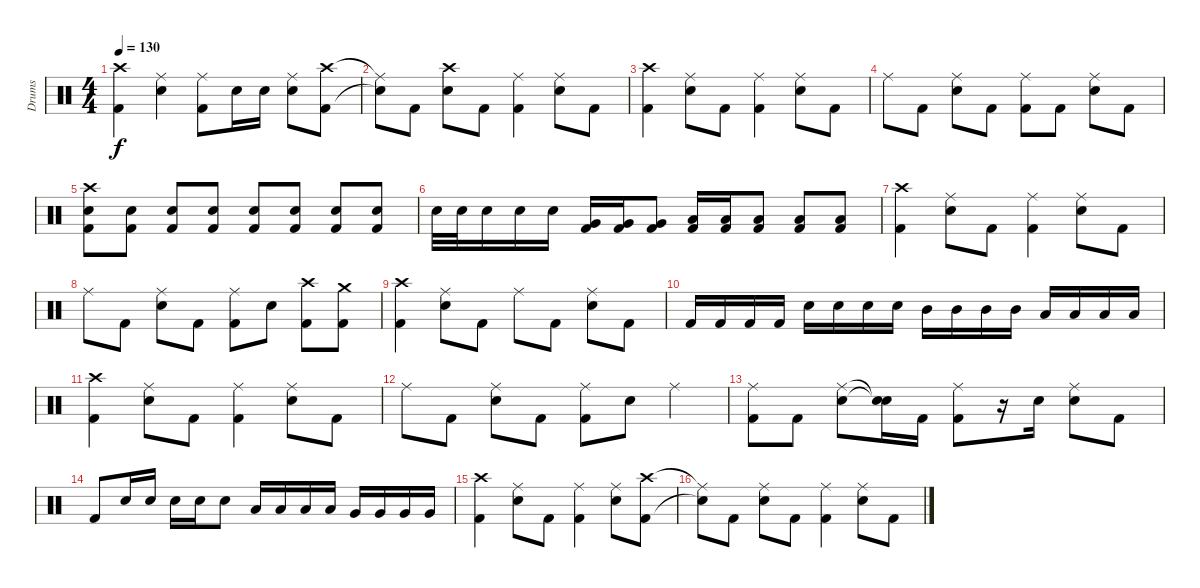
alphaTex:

\track ("Drums" "Drums") {instrument percussion}
\staff {score}
\articulation defaults
\ts (4 4)
\tempo 130
\clef neutral
\ks c
("Crash high (hit)" "Kick (hit) 2").4{dy f} ("Ride (middle)" "Electric Snare (hit)").4 ("Ride (middle)" "Kick (hit) 2").8 "Electric Snare (hit)".16 "Electric Snare (hit)".16 ("Ride (middle)" "Electric Snare (hit)").8 ("Crash high (hit)" "Kick (hit) 2").8 |
("Ride (middle)"{t} "Snare (hit)"{t}).8 "Kick (hit) 2".8 ("Crash high (hit)" "Electric Snare (hit)").8 "Kick (hit) 2".8 ("Ride (middle)" "Kick (hit) 2").4 ("Ride (middle)" "Electric Snare (hit)").8 "Kick (hit) 2".8 |
("Crash high (hit)" "Kick (hit) 2").4 ("Ride (middle)" "Electric Snare (hit)").8 "Kick (hit) 2".8 ("Ride (middle)" "Kick (hit) 2").4 ("Ride (middle)" "Electric Snare (hit)").8 "Kick (hit) 2".8 |
"Ride (middle)".8 "Kick (hit) 2".8 ("Ride (middle)" "Electric Snare (hit)").8 "Kick (hit) 2".8 ("Ride (middle)" "Kick (hit) 2").8 "Kick (hit) 2".8 ("Ride (middle)" "Electric Snare (hit)").8 "Kick (hit) 2".8 |
("Crash high (hit)" "Electric Snare (hit)" "Kick (hit) 2").8 ("Electric Snare (hit)" "Kick (hit) 2").8 ("Electric Snare (hit)" "Kick (hit) 2").8 ("Electric Snare (hit)" "Kick (hit) 2").8 ("Electric Snare (hit)" "Kick (hit) 2").8 ("Electric Snare (hit)" "Kick (hit) 2").8 ("Electric Snare (hit)" "Kick (hit) 2").8 ("Electric Snare (hit)" "Kick (hit) 2").8 |
"Electric Snare (hit)".32 "Electric Snare (hit)".32 "Electric Snare (hit)".16 "Electric Snare (hit)".16 "Electric Snare (hit)".16 ("Very Low Tom (hit)" "Kick (hit) 2").16 ("Very Low Tom (hit)" "Kick (hit) 2").16 ("Very Low Tom (hit)" "Kick (hit) 2").8 ("Low Floor Tom (hit)" "Kick (hit) 2").16 ("Low Floor Tom (hit)" "Kick (hit) 2").16 ("Low Floor Tom (hit)" "Kick (hit) 2").8 ("Low Floor Tom (hit)" "Kick (hit) 2").8 ("Low Floor Tom (hit)" "Kick (hit) 2").8 |
("Crash high (hit)" "Kick (hit) 2").4 ("Ride (middle)" "Electric Snare (hit)").8 "Kick (hit) 2".8 ("Ride (middle)" "Kick (hit) 2").4 ("Ride (middle)" "Electric Snare (hit)").8 "Kick (hit) 2".8 |
"Ride (middle)".8 "Kick (hit) 2".8 ("Ride (middle)" "Electric Snare (hit)").8 "Kick (hit) 2".8 ("Ride (middle)" "Kick (hit) 2").8 "Electric Snare (hit)".8 ("Crash high (hit)" "Kick (hit) 2").8 ("Crash medium (hit)" "Kick (hit) 2").8 |
("Crash high (hit)" "Kick (hit) 2").4 ("Ride (middle)" "Electric Snare (hit)").8 "Kick (hit) 2".8 "Ride (middle)".8 "Kick (hit) 2".8 ("Ride (middle)" "Electric Snare (hit)").8 "Kick (hit) 2".8 |
"Kick (hit) 2".16 "Kick (hit) 2".16 "Kick (hit) 2".16 "Kick (hit) 2".16 "Electric Snare (hit)".16 "Electric Snare (hit)".16 "Electric Snare (hit)".16 "Electric Snare (hit)".16 "Mid Tom (hit)".16 "Mid Tom (hit)".16 "Mid Tom (hit)".16 "Mid Tom (hit)".16 "Low Tom (hit)".16 "Low Tom (hit)".16 "Low Tom (hit)".16 "Low Tom (hit)".16 |
("Crash high (hit)" "Kick (hit) 2").4 ("Ride (middle)" "Electric Snare (hit)").8 "Kick (hit) 2".8 ("Ride (middle)" "Kick (hit) 2").4 ("Ride (middle)" "Electric Snare (hit)").8 "Kick (hit) 2".8 |
"Ride (middle)".8 "Kick (hit) 2".8 ("Ride (middle)" "Electric Snare (hit)").8 "Kick (hit) 2".8 ("Ride (middle)" "Kick (hit) 2").8 "Electric Snare (hit)".8 "Ride (middle)".4 |
("Ride (middle)" "Kick (hit) 2").8 "Kick (hit) 2".8 ("Ride (middle)" "Electric Snare (hit)").8 ("Snare (hit)"{t} "Snare (hit)"{t}).16 "Kick (hit) 2".16 ("Ride (middle)" "Kick (hit) 2").8 r.16 "Electric Snare (hit)".16 ("Ride (middle)" "Electric Snare (hit)").8 "Kick (hit) 2".8 |
"Kick (hit) 2".8 "Electric Snare (hit)".16 "Electric Snare (hit)".16 "Electric Snare (hit)".16 "Electric Snare (hit)".16 "Electric Snare (hit)".8 "Low Tom (hit)".16 "Low Tom (hit)".16 "Low Tom (hit)".16 "Low Tom (hit)".16 "Very Low Tom (hit)".16 "Very Low Tom (hit)".16 "Very Low Tom (hit)".16 "Very Low Tom (hit)".16 |
("Crash high (hit)" "Kick (hit) 2").4 ("Ride (middle)" "Electric Snare (hit)").8 "Kick (hit) 2".8 ("Ride (middle)" "Kick (hit) 2").4 ("Ride (middle)" "Electric Snare (hit)").8 ("Crash high (hit)" "Kick (hit) 2").8 |
("Ride (middle)"{t} "Snare (hit)"{t}).8 "Kick (hit) 2".8 ("Ride (middle)" "Electric Snare (hit)").8 "Kick (hit) 2".8 ("Ride (middle)" "Kick (hit) 2").4 ("Ride (middle)" "Electric Snare (hit)").8 "Kick (hit) 2".8
